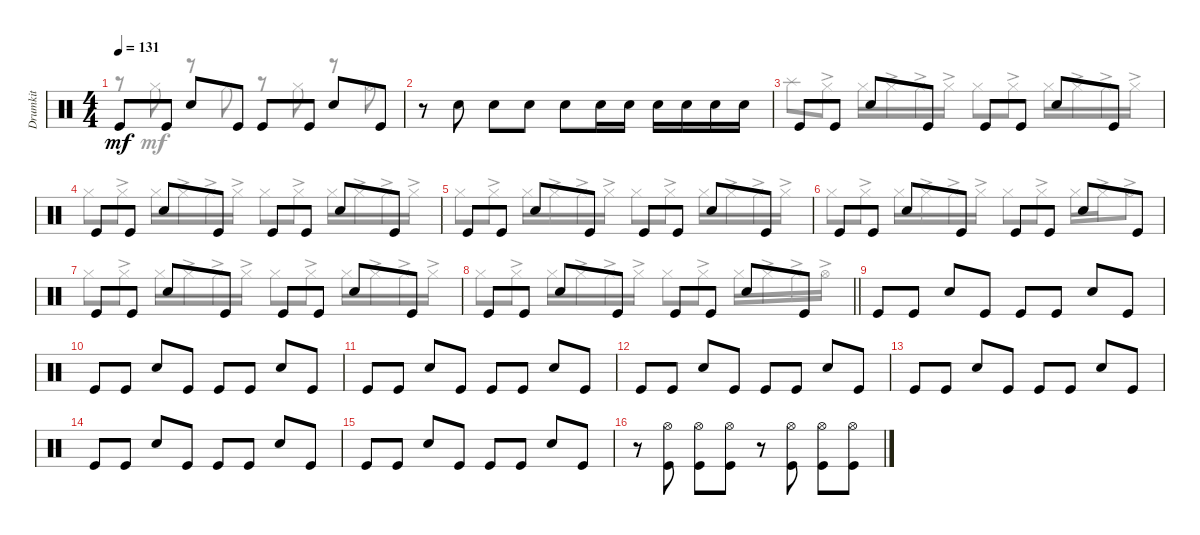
\track ("Drumkit" "Drumkit") {instrument percussion}
\staff {score}
\articulation defaults
\voice
\ts (4 4)
\tempo 131
\clef neutral
\ks c "Kick (hit)".8{dy mf} "Kick (hit)".8 "Snare (hit) 2".8 "Kick (hit)".8 "Kick (hit)".8 "Kick (hit)".8 "Snare (hit) 2".8 "Kick (hit)".8
|
r.8 "Snare (hit) 2".8 "Snare (hit) 2".8 "Snare (hit) 2".8 "Snare (hit) 2".8 "Snare (hit) 2".16 "Snare (hit) 2".16 "Snare (hit) 2".16 "Snare (hit) 2".16 "Snare (hit) 2".16 "Snare (hit) 2".16 |
"Kick (hit)".8 "Kick (hit)".8 "Snare (hit) 2".8 "Kick (hit)".8 "Kick (hit)".8 "Kick (hit)".8 "Snare (hit) 2".8 "Kick (hit)".8 |
"Kick (hit)".8 "Kick (hit)".8 "Snare (hit) 2".8 "Kick (hit)".8 "Kick (hit)".8 "Kick (hit)".8 "Snare (hit) 2".8 "Kick (hit)".8 |
"Kick (hit)".8 "Kick (hit)".8 "Snare (hit) 2".8 "Kick (hit)".8 "Kick (hit)".8 "Kick (hit)".8 "Snare (hit) 2".8 "Kick (hit)".8 |
"Kick (hit)".8 "Kick (hit)".8 "Snare (hit) 2".8 "Kick (hit)".8 "Kick (hit)".8 "Kick (hit)".8 "Snare (hit) 2".8 "Kick (hit)".8 |
"Kick (hit)".8 "Kick (hit)".8 "Snare (hit) 2".8 "Kick (hit)".8 "Kick (hit)".8 "Kick (hit)".8 "Snare (hit) 2".8 "Kick (hit)".8 |
\barLineRight lightlight "Kick (hit)".8 "Kick (hit)".8 "Snare (hit) 2".8 "Kick (hit)".8 "Kick (hit)".8 "Kick (hit)".8 "Snare (hit) 2".8 "Kick (hit)".8
|
"Kick (hit)".8 "Kick (hit)".8 "Snare (hit) 2".8 "Kick (hit)".8 "Kick (hit)".8 "Kick (hit)".8 "Snare (hit) 2".8 "Kick (hit)".8 |
"Kick (hit)".8 "Kick (hit)".8 "Snare (hit) 2".8 "Kick (hit)".8 "Kick (hit)".8 "Kick (hit)".8 "Snare (hit) 2".8 "Kick (hit)".8 |
"Kick (hit)".8 "Kick (hit)".8 "Snare (hit) 2".8 "Kick (hit)".8 "Kick (hit)".8 "Kick (hit)".8 "Snare (hit) 2".8 "Kick (hit)".8 |
"Kick (hit)".8 "Kick (hit)".8 "Snare (hit) 2".8 "Kick (hit)".8 "Kick (hit)".8 "Kick (hit)".8 "Snare (hit) 2".8 "Kick (hit)".8 |
"Kick (hit)".8 "Kick (hit)".8 "Snare (hit) 2".8 "Kick (hit)".8 "Kick (hit)".8 "Kick (hit)".8 "Snare (hit) 2".8 "Kick (hit)".8 |
"Kick (hit)".8 "Kick (hit)".8 "Snare (hit) 2".8 "Kick (hit)".8 "Kick (hit)".8 "Kick (hit)".8 "Snare (hit) 2".8 "Kick (hit)".8 |
"Kick (hit)".8 "Kick (hit)".8 "Snare (hit) 2".8 "Kick (hit)".8 "Kick (hit)".8 "Kick (hit)".8 "Snare (hit) 2".8 "Kick (hit)".8 |
r.8 ("Hi-Hat (open)" "Kick (hit)").8 ("Hi-Hat (open)" "Kick (hit)").8 ("Hi-Hat (open)" "Kick (hit)").8 r.8 ("Hi-Hat (open)" "Kick (hit)").8 ("Hi-Hat (open)" "Kick (hit)").8 ("Hi-Hat (open)" "Kick (hit)").8
\voice
\clef neutral
\ottava regular
\simile none
\ks c
r.8{dy mf} "Hi-Hat (closed)".8 r.8 "Hi-Hat (closed)".8 r.8 "Hi-Hat (closed)".8 r.8 "Hi-Hat (open)".8 |
|
"Splash (hit)".8 "Hi-Hat (closed)"{ac}.8 "Hi-Hat (closed)".16 "Hi-Hat (closed)"{ac}.16 "Hi-Hat (closed)"{ac}.16 "Hi-Hat (closed)"{ac}.16 "Hi-Hat (closed)".8 "Hi-Hat (closed)"{ac}.8 "Hi-Hat (closed)".16 "Hi-Hat (closed)"{ac}.16 "Hi-Hat (closed)"{ac}.16 "Hi-Hat (closed)"{ac}.16 |
"Hi-Hat (closed)".8 "Hi-Hat (closed)"{ac}.8 "Hi-Hat (closed)".16 "Hi-Hat (closed)"{ac}.16 "Hi-Hat (closed)"{ac}.16 "Hi-Hat (closed)"{ac}.16 "Hi-Hat (closed)".8 "Hi-Hat (closed)"{ac}.8 "Hi-Hat (closed)".16 "Hi-Hat (closed)"{ac}.16 "Hi-Hat (closed)"{ac}.16 "Hi-Hat (closed)"{ac}.16 |
"Hi-Hat (closed)".8 "Hi-Hat (closed)"{ac}.8 "Hi-Hat (closed)".16 "Hi-Hat (closed)"{ac}.16 "Hi-Hat (closed)"{ac}.16 "Hi-Hat (closed)"{ac}.16 "Hi-Hat (closed)".8 "Hi-Hat (closed)"{ac}.8 "Hi-Hat (closed)".16 "Hi-Hat (closed)"{ac}.16 "Hi-Hat (closed)"{ac}.16 "Hi-Hat (closed)"{ac}.16 |
"Hi-Hat (closed)".8 "Hi-Hat (closed)"{ac}.8 "Hi-Hat (closed)".16 "Hi-Hat (closed)"{ac}.16 "Hi-Hat (closed)"{ac}.16 "Hi-Hat (closed)"{ac}.16 "Hi-Hat (closed)".8 "Hi-Hat (closed)"{ac}.8 "Hi-Hat (closed)".16 "Hi-Hat (closed)"{ac}.16 "Hi-Hat (open)"{ac}.8 |
"Hi-Hat (closed)".8 "Hi-Hat (closed)"{ac}.8 "Hi-Hat (closed)".16 "Hi-Hat (closed)"{ac}.16 "Hi-Hat (closed)"{ac}.16 "Hi-Hat (closed)"{ac}.16 "Hi-Hat (closed)".8 "Hi-Hat (closed)"{ac}.8 "Hi-Hat (closed)".16 "Hi-Hat (closed)"{ac}.16 "Hi-Hat (closed)"{ac}.16 "Hi-Hat (closed)"{ac}.16 |
\barLineRight lightlight "Hi-Hat (closed)".8 "Hi-Hat (closed)"{ac}.8 "Hi-Hat (closed)".16 "Hi-Hat (closed)"{ac}.16 "Hi-Hat (closed)"{ac}.16 "Hi-Hat (closed)"{ac}.16 "Hi-Hat (closed)".8 "Hi-Hat (closed)"{ac}.8 "Hi-Hat (closed)".16 "Hi-Hat (closed)"{ac}.16 "Hi-Hat (closed)"{ac}.16 "Hi-Hat (open)"{ac}.16
|
|
|
|
|
|
|
|
